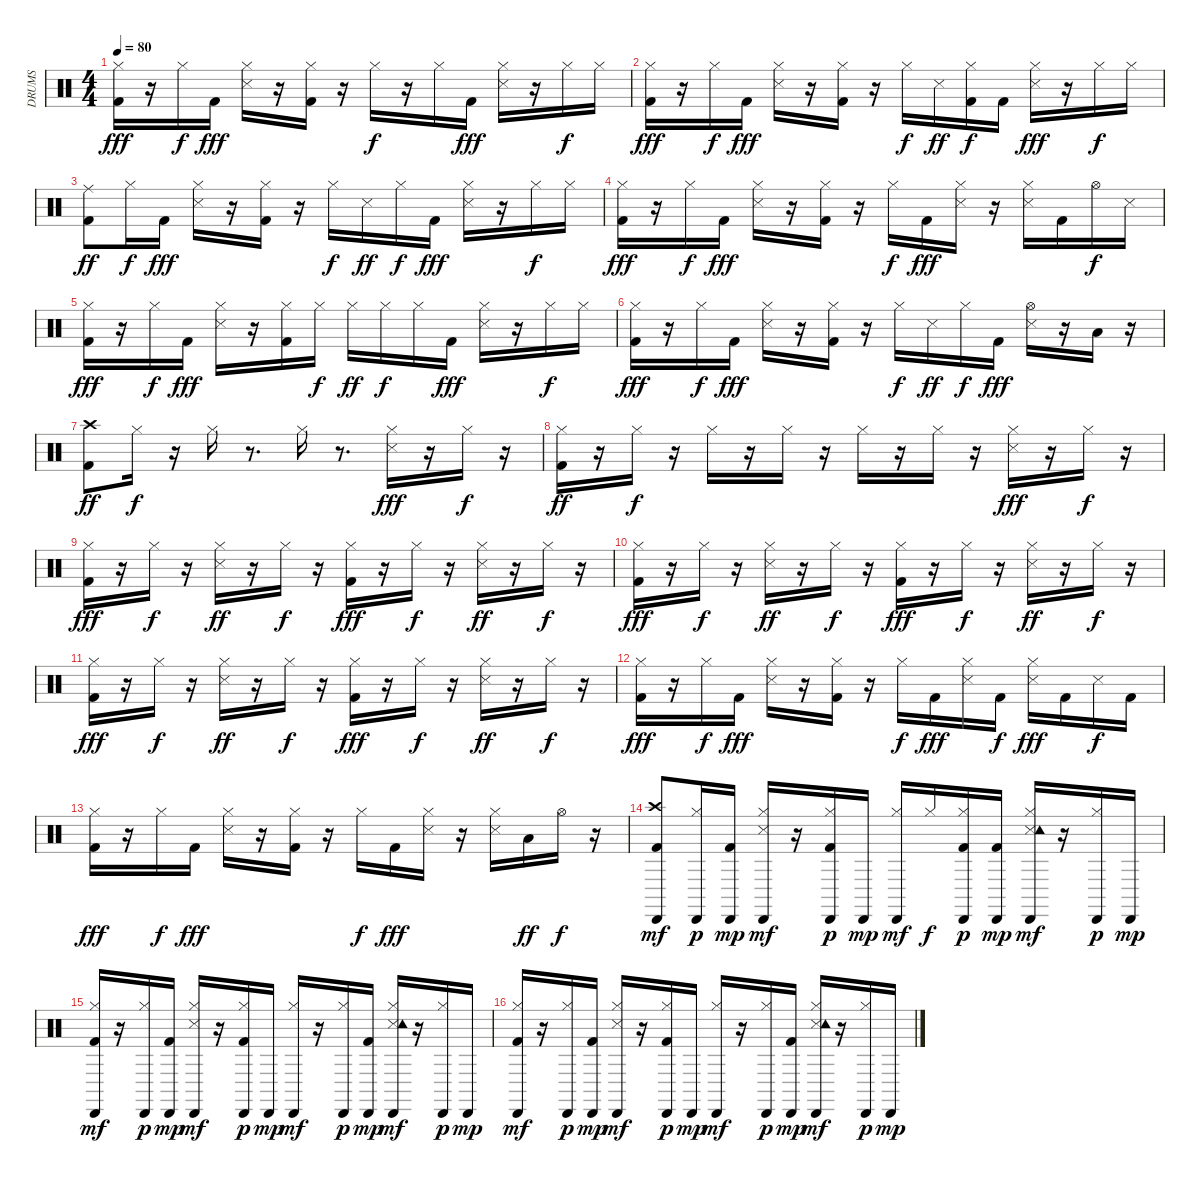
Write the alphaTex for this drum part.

\track ("DRUMS" "DRUMS") {instrument percussion}
\staff {score}
\articulation defaults
\ts (4 4)
\tempo 80
\clef neutral
\ks c
("Kick (hit) 2" "Hi-Hat (closed)").16{dy fff} r.16 "Hi-Hat (closed)".16{dy f} "Kick (hit) 2".16{dy fff} ("Hi-Hat (closed)" "Metronome (hit)").16 r.16 ("Kick (hit) 2" "Hi-Hat (closed)").16 r.16 "Hi-Hat (closed)".16{dy f} r.16 "Hi-Hat (closed)".16 "Kick (hit) 2".16{dy fff} ("Hi-Hat (closed)" "Metronome (hit)").16 r.16 "Hi-Hat (closed)".16{dy f} "Hi-Hat (closed)".16 |
("Kick (hit) 2" "Hi-Hat (closed)").16{dy fff} r.16 "Hi-Hat (closed)".16{dy f} "Kick (hit) 2".16{dy fff} ("Hi-Hat (closed)" "Metronome (hit)").16 r.16 ("Kick (hit) 2" "Hi-Hat (closed)").16 r.16 "Hi-Hat (closed)".16{dy f} "Metronome (hit)".16{dy ff} ("Kick (hit) 2" "Hi-Hat (closed)").16{dy f} "Kick (hit) 2".16 ("Hi-Hat (closed)" "Metronome (hit)").16{dy fff} r.16 "Hi-Hat (closed)".16{dy f} "Hi-Hat (closed)".16 |
("Kick (hit) 2" "Ride (middle)").8{dy ff} "Hi-Hat (closed)".16{dy f} "Kick (hit) 2".16{dy fff} ("Hi-Hat (closed)" "Metronome (hit)").16 r.16 ("Kick (hit) 2" "Hi-Hat (closed)").16 r.16 "Hi-Hat (closed)".16{dy f} "Metronome (hit)".16{dy ff} "Hi-Hat (closed)".16{dy f} "Kick (hit) 2".16{dy fff} ("Hi-Hat (closed)" "Metronome (hit)").16 r.16 "Hi-Hat (closed)".16{dy f} "Hi-Hat (closed)".16 |
("Kick (hit) 2" "Hi-Hat (closed)").16{dy fff} r.16 "Hi-Hat (closed)".16{dy f} "Kick (hit) 2".16{dy fff} ("Hi-Hat (closed)" "Metronome (hit)").16 r.16 ("Kick (hit) 2" "Hi-Hat (closed)").16 r.16 "Hi-Hat (closed)".16{dy f} "Kick (hit) 2".16{dy fff} ("Metronome (hit)" "Hi-Hat (closed)").16 r.16 ("Metronome (hit)" "Hi-Hat (closed)").16 "Kick (hit) 2".16 "Hi-Hat (open)".16{dy f} "Metronome (hit)".16 |
("Kick (hit) 2" "Hi-Hat (closed)").16{dy fff} r.16 "Hi-Hat (closed)".16{dy f} "Kick (hit) 2".16{dy fff} ("Hi-Hat (closed)" "Metronome (hit)").16 r.16 ("Kick (hit) 2" "Hi-Hat (closed)").16 "Hi-Hat (closed)".16{dy f} "Hi-Hat (closed)".16{dy ff} "Hi-Hat (closed)".16{dy f} "Hi-Hat (closed)".16 "Kick (hit) 2".16{dy fff} ("Hi-Hat (closed)" "Metronome (hit)").16 r.16 "Hi-Hat (closed)".16{dy f} "Hi-Hat (closed)".16 |
("Kick (hit) 2" "Hi-Hat (closed)").16{dy fff} r.16 "Hi-Hat (closed)".16{dy f} "Kick (hit) 2".16{dy fff} ("Hi-Hat (closed)" "Metronome (hit)").16 r.16 ("Kick (hit) 2" "Hi-Hat (closed)").16 r.16 "Hi-Hat (closed)".16{dy f} "Metronome (hit)".16{dy ff} "Hi-Hat (closed)".16{dy f} "Kick (hit) 2".16{dy fff} ("Hi-Hat (open)" "Metronome (hit)").16 r.16 "Low Tom (hit)".16 r.16 |
("Crash high (hit)" "Kick (hit) 2").8{dy ff} "Hi-Hat (closed)".16{dy f} r.16 "Hi-Hat (closed)".16 r.8{d} "Hi-Hat (closed)".16 r.8{d} ("Snare (side stick) 3" "Hi-Hat (closed)").16{dy fff} r.16 "Hi-Hat (closed)".16{dy f} r.16 |
("Kick (hit) 2" "Hi-Hat (closed)").16{dy ff} r.16 "Hi-Hat (closed)".16{dy f} r.16 "Hi-Hat (closed)".16 r.16 "Hi-Hat (closed)".16 r.16 "Hi-Hat (closed)".16 r.16 "Hi-Hat (closed)".16 r.16 ("Snare (side stick) 3" "Hi-Hat (closed)").16{dy fff} r.16 "Hi-Hat (closed)".16{dy f} r.16 |
("Kick (hit) 2" "Hi-Hat (closed)").16{dy fff} r.16 "Hi-Hat (closed)".16{dy f} r.16 ("Hi-Hat (closed)" "Metronome (hit)").16{dy ff} r.16 "Hi-Hat (closed)".16{dy f} r.16 ("Hi-Hat (closed)" "Kick (hit) 2").16{dy fff} r.16 "Hi-Hat (closed)".16{dy f} r.16 ("Hi-Hat (closed)" "Metronome (hit)").16{dy ff} r.16 "Hi-Hat (closed)".16{dy f} r.16 |
("Hi-Hat (closed)" "Kick (hit) 2").16{dy fff} r.16 "Hi-Hat (closed)".16{dy f} r.16 ("Hi-Hat (closed)" "Metronome (hit)").16{dy ff} r.16 "Hi-Hat (closed)".16{dy f} r.16 ("Hi-Hat (closed)" "Kick (hit) 2").16{dy fff} r.16 "Hi-Hat (closed)".16{dy f} r.16 ("Hi-Hat (closed)" "Metronome (hit)").16{dy ff} r.16 "Hi-Hat (closed)".16{dy f} r.16 |
("Hi-Hat (closed)" "Kick (hit) 2").16{dy fff} r.16 "Hi-Hat (closed)".16{dy f} r.16 ("Hi-Hat (closed)" "Metronome (hit)").16{dy ff} r.16 "Hi-Hat (closed)".16{dy f} r.16 ("Hi-Hat (closed)" "Kick (hit) 2").16{dy fff} r.16 "Hi-Hat (closed)".16{dy f} r.16 ("Hi-Hat (closed)" "Metronome (hit)").16{dy ff} r.16 "Hi-Hat (closed)".16{dy f} r.16 |
("Kick (hit) 2" "Hi-Hat (closed)").16{dy fff} r.16 "Hi-Hat (closed)".16{dy f} "Kick (hit) 2".16{dy fff} ("Hi-Hat (closed)" "Metronome (hit)").16 r.16 ("Kick (hit) 2" "Hi-Hat (closed)").16 r.16 "Hi-Hat (closed)".16{dy f} "Kick (hit) 2".16{dy fff} ("Metronome (hit)" "Hi-Hat (closed)").16 "Kick (hit) 2".16{dy f} ("Metronome (hit)" "Hi-Hat (closed)").16{dy fff} "Kick (hit) 2".16 "Metronome (hit)".16{dy f} "Kick (hit) 2".16 |
("Kick (hit) 2" "Hi-Hat (closed)").16{dy fff} r.16 "Hi-Hat (closed)".16{dy f} "Kick (hit) 2".16{dy fff} ("Hi-Hat (closed)" "Metronome (hit)").16 r.16 ("Kick (hit) 2" "Hi-Hat (closed)").16 r.16 "Hi-Hat (closed)".16{dy f} "Kick (hit) 2".16{dy fff} ("Metronome (hit)" "Hi-Hat (closed)").16 r.16 ("Metronome (hit)" "Hi-Hat (closed)").16 "Low Tom (hit)".16{dy ff} "Hi-Hat (open)".16{dy f} r.16 |
("Kick (hit) 2" "Crash high (hit)" "Cabasa (hit)").8{dy mf} ("Hi-Hat (closed)" "Cabasa (hit)").16{dy p} ("Kick (hit) 2" "Cabasa (hit)").16{dy mp} ("Hi-Hat (closed)" "Metronome (hit)" "Cabasa (hit)").16{dy mf} r.16 ("Kick (hit) 2" "Hi-Hat (closed)" "Cabasa (hit)").16{dy p} "Cabasa (hit)".16{dy mp} ("Hi-Hat (closed)" "Cabasa (hit)").16{dy mf} "Hi-Hat (closed)".16{dy f} ("Kick (hit) 2" "Hi-Hat (closed)" "Cabasa (hit)").16{dy p} ("Kick (hit) 2" "Cabasa (hit)").16{dy mp} ("Hi-Hat (closed)" "Metronome (hit)" "Tambourine (hit)" "Cabasa (hit)").16{dy mf} r.16 ("Hi-Hat (closed)" "Cabasa (hit)").16{dy p} "Cabasa (hit)".16{dy mp} |
("Kick (hit) 2" "Hi-Hat (closed)" "Cabasa (hit)").16{dy mf} r.16 ("Hi-Hat (closed)" "Cabasa (hit)").16{dy p} ("Kick (hit) 2" "Cabasa (hit)").16{dy mp} ("Hi-Hat (closed)" "Metronome (hit)" "Cabasa (hit)").16{dy mf} r.16 ("Kick (hit) 2" "Hi-Hat (closed)" "Cabasa (hit)").16{dy p} "Cabasa (hit)".16{dy mp} ("Hi-Hat (closed)" "Cabasa (hit)").16{dy mf} r.16 ("Hi-Hat (closed)" "Cabasa (hit)").16{dy p} ("Kick (hit) 2" "Cabasa (hit)").16{dy mp} ("Hi-Hat (closed)" "Metronome (hit)" "Tambourine (hit)" "Cabasa (hit)").16{dy mf} r.16 ("Hi-Hat (closed)" "Cabasa (hit)").16{dy p} "Cabasa (hit)".16{dy mp} |
("Kick (hit) 2" "Hi-Hat (closed)" "Cabasa (hit)").16{dy mf} r.16 ("Hi-Hat (closed)" "Cabasa (hit)").16{dy p} ("Kick (hit) 2" "Cabasa (hit)").16{dy mp} ("Hi-Hat (closed)" "Metronome (hit)" "Cabasa (hit)").16{dy mf} r.16 ("Kick (hit) 2" "Hi-Hat (closed)" "Cabasa (hit)").16{dy p} "Cabasa (hit)".16{dy mp} ("Hi-Hat (closed)" "Cabasa (hit)").16{dy mf} r.16 ("Hi-Hat (closed)" "Cabasa (hit)").16{dy p} ("Kick (hit) 2" "Cabasa (hit)").16{dy mp} ("Hi-Hat (closed)" "Metronome (hit)" "Tambourine (hit)" "Cabasa (hit)").16{dy mf} r.16 ("Hi-Hat (closed)" "Cabasa (hit)").16{dy p} "Cabasa (hit)".16{dy mp}
